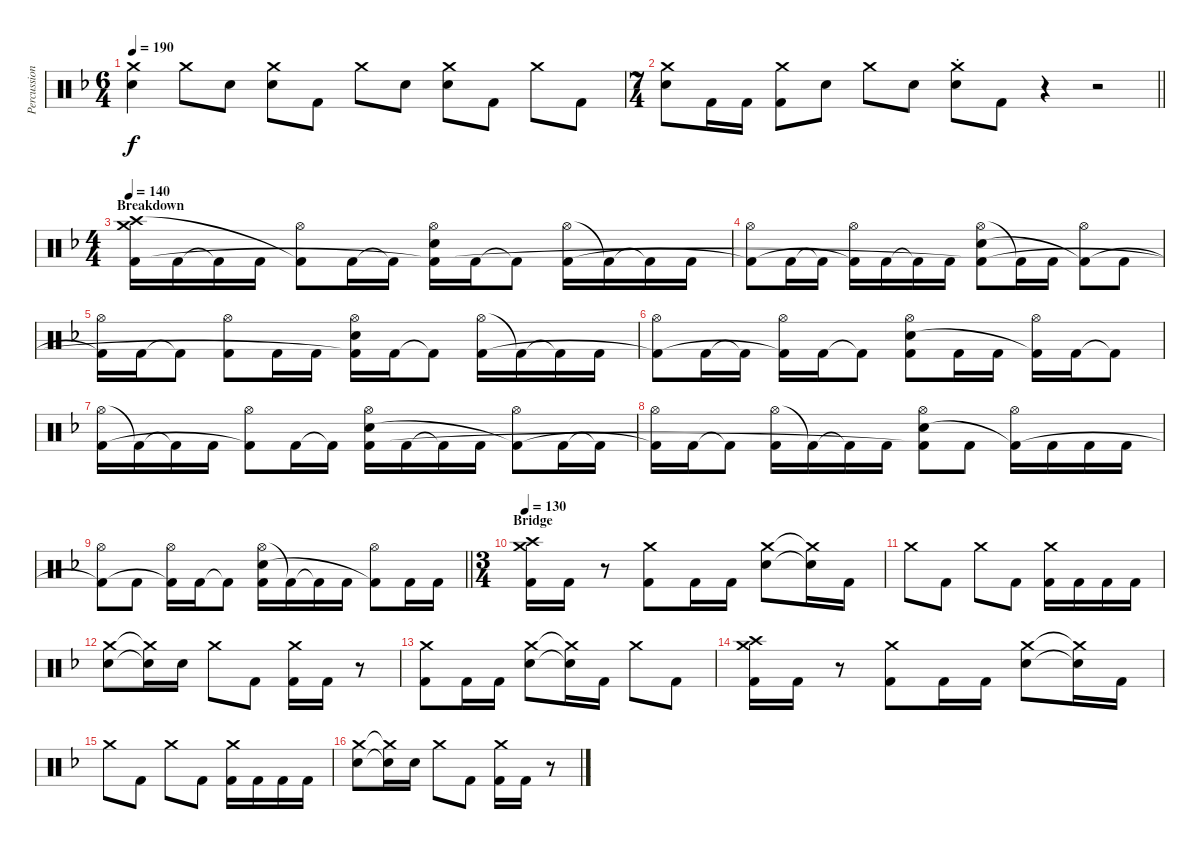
\track ("Percussion" "Percussion") {instrument percussion}
\staff {score}
\articulation defaults
\ts (6 4)
\tempo 190
\clef neutral
\ks f
("Crash medium (hit)" "Electric Snare (hit)").4{dy f} "Crash medium (hit)".8 "Electric Snare (hit)".8 ("Crash medium (hit)" "Electric Snare (hit)").8 "Kick (hit) 2".8 "Crash medium (hit)".8 "Electric Snare (hit)".8 ("Crash medium (hit)" "Electric Snare (hit)").8 "Kick (hit) 2".8 "Crash medium (hit)".8 "Kick (hit) 2".8 |
\ts (7 4)
\barLineRight lightlight
("Crash medium (hit)" "Electric Snare (hit)").8 "Kick (hit) 2".16 "Kick (hit) 2".16 ("Crash medium (hit)" "Kick (hit) 2").8 "Electric Snare (hit)".8 "Crash medium (hit)".8 "Electric Snare (hit)".8 ("Crash medium (hit)"{st} "Electric Snare (hit)").8 "Kick (hit) 2".8 r.4{volume 0} r.2 |
\ts (4 4)
\section ("" "Breakdown")
\tempo 140
("Crash medium (hit)" "Crash high (hit)" "Kick (hit) 2").16{volume 14} "Kick (hit) 2".16 "Kick (hit) 2"{t}.16 "Kick (hit) 2".16 ("Hi-Hat (open)" "Kick (hit) 2"{t}).8 "Kick (hit) 2".16 "Kick (hit) 2"{t}.16 ("Hi-Hat (open)" "Electric Snare (hit)" "Kick (hit) 2"{t}).16 "Kick (hit) 2".16 "Kick (hit) 2"{t}.8 ("Hi-Hat (open)" "Kick (hit) 2").16 "Kick (hit) 2"{t}.16 "Kick (hit) 2"{t}.16 "Kick (hit) 2".16 |
("Hi-Hat (open)" "Kick (hit) 2"{t}).8 "Kick (hit) 2".16 "Kick (hit) 2"{t}.16 ("Hi-Hat (open)" "Kick (hit) 2"{t}).16 "Kick (hit) 2".16 "Kick (hit) 2"{t}.16 "Kick (hit) 2".16 ("Hi-Hat (open)" "Electric Snare (hit)" "Kick (hit) 2"{t}).8 "Kick (hit) 2"{t}.16 "Kick (hit) 2".16 ("Hi-Hat (open)" "Kick (hit) 2"{t}).8 "Kick (hit) 2".8 |
("Hi-Hat (open)" "Kick (hit) 2"{t}).16 "Kick (hit) 2".16 "Kick (hit) 2"{t}.8 ("Hi-Hat (open)" "Kick (hit) 2").8 "Kick (hit) 2".16 "Kick (hit) 2".16 ("Hi-Hat (open)" "Electric Snare (hit)" "Kick (hit) 2"{t}).16 "Kick (hit) 2".16 "Kick (hit) 2"{t}.8 ("Hi-Hat (open)" "Kick (hit) 2").16 "Kick (hit) 2"{t}.16 "Kick (hit) 2"{t}.16 "Kick (hit) 2".16 |
("Hi-Hat (open)" "Kick (hit) 2"{t}).8 "Kick (hit) 2".16 "Kick (hit) 2"{t}.16 ("Hi-Hat (open)" "Kick (hit) 2"{t}).16 "Kick (hit) 2".16 "Kick (hit) 2"{t}.8 ("Hi-Hat (open)" "Electric Snare (hit)" "Kick (hit) 2").8 "Kick (hit) 2".16 "Kick (hit) 2".16 ("Hi-Hat (open)" "Kick (hit) 2"{t}).16 "Kick (hit) 2".16 "Kick (hit) 2"{t}.8 |
("Hi-Hat (open)" "Kick (hit) 2").16 "Kick (hit) 2"{t}.16 "Kick (hit) 2"{t}.16 "Kick (hit) 2".16 ("Hi-Hat (open)" "Kick (hit) 2"{t}).8 "Kick (hit) 2".16 "Kick (hit) 2"{t}.16 ("Hi-Hat (open)" "Electric Snare (hit)" "Kick (hit) 2").16 "Kick (hit) 2".16 "Kick (hit) 2"{t}.16 "Kick (hit) 2".16 ("Hi-Hat (open)" "Kick (hit) 2"{t}).8 "Kick (hit) 2".16 "Kick (hit) 2"{t}.16 |
("Hi-Hat (open)" "Kick (hit) 2"{t}).16 "Kick (hit) 2".16 "Kick (hit) 2"{t}.8 ("Hi-Hat (open)" "Kick (hit) 2").16 "Kick (hit) 2"{t}.16 "Kick (hit) 2"{t}.16 "Kick (hit) 2".16 ("Hi-Hat (open)" "Electric Snare (hit)" "Kick (hit) 2"{t}).8 "Kick (hit) 2".8 ("Hi-Hat (open)" "Kick (hit) 2"{t}).16 "Kick (hit) 2".16 "Kick (hit) 2".16 "Kick (hit) 2".16 |
\barLineRight lightlight
("Hi-Hat (open)" "Kick (hit) 2"{t}).8 "Kick (hit) 2".8 ("Hi-Hat (open)" "Kick (hit) 2"{t}).16 "Kick (hit) 2".16 "Kick (hit) 2"{t}.8 ("Hi-Hat (open)" "Electric Snare (hit)" "Kick (hit) 2").16 "Kick (hit) 2"{t}.16 "Kick (hit) 2"{t}.16 "Kick (hit) 2".16 ("Hi-Hat (open)" "Kick (hit) 2"{t}).8 "Kick (hit) 2".16 "Kick (hit) 2".16 |
\ts (3 4)
\section ("" "Bridge")
\tempo 130
("Crash medium (hit)" "Crash high (hit)" "Kick (hit) 2").16 "Kick (hit) 2".16 r.8 ("Crash medium (hit)" "Kick (hit) 2").8 "Kick (hit) 2".16 "Kick (hit) 2".16 ("Crash medium (hit)" "Electric Snare (hit)").8 ("Crash medium (hit)"{t} "Electric Snare (hit)"{t}).16 "Kick (hit) 2".16 |
"Crash medium (hit)".8 "Kick (hit) 2".8 "Crash medium (hit)".8 "Kick (hit) 2".8 ("Crash medium (hit)" "Kick (hit) 2").16 "Kick (hit) 2".16 "Kick (hit) 2".16 "Kick (hit) 2".16 |
("Crash medium (hit)" "Electric Snare (hit)").8 ("Crash medium (hit)"{t} "Electric Snare (hit)"{t}).16 "Electric Snare (hit)".16 "Crash medium (hit)".8 "Kick (hit) 2".8 ("Crash medium (hit)" "Kick (hit) 2").16 "Kick (hit) 2".16 r.8 |
("Crash medium (hit)" "Kick (hit) 2").8 "Kick (hit) 2".16 "Kick (hit) 2".16 ("Crash medium (hit)" "Electric Snare (hit)").8 ("Crash medium (hit)"{t} "Electric Snare (hit)"{t}).16 "Kick (hit) 2".16 "Crash medium (hit)".8 "Kick (hit) 2".8 |
("Crash medium (hit)" "Crash high (hit)" "Kick (hit) 2").16 "Kick (hit) 2".16 r.8 ("Crash medium (hit)" "Kick (hit) 2").8 "Kick (hit) 2".16 "Kick (hit) 2".16 ("Crash medium (hit)" "Electric Snare (hit)").8 ("Crash medium (hit)"{t} "Electric Snare (hit)"{t}).16 "Kick (hit) 2".16 |
"Crash medium (hit)".8 "Kick (hit) 2".8 "Crash medium (hit)".8 "Kick (hit) 2".8 ("Crash medium (hit)" "Kick (hit) 2").16 "Kick (hit) 2".16 "Kick (hit) 2".16 "Kick (hit) 2".16 |
("Crash medium (hit)" "Electric Snare (hit)").8 ("Crash medium (hit)"{t} "Electric Snare (hit)"{t}).16 "Electric Snare (hit)".16 "Crash medium (hit)".8 "Kick (hit) 2".8 ("Crash medium (hit)" "Kick (hit) 2").16 "Kick (hit) 2".16 r.8
